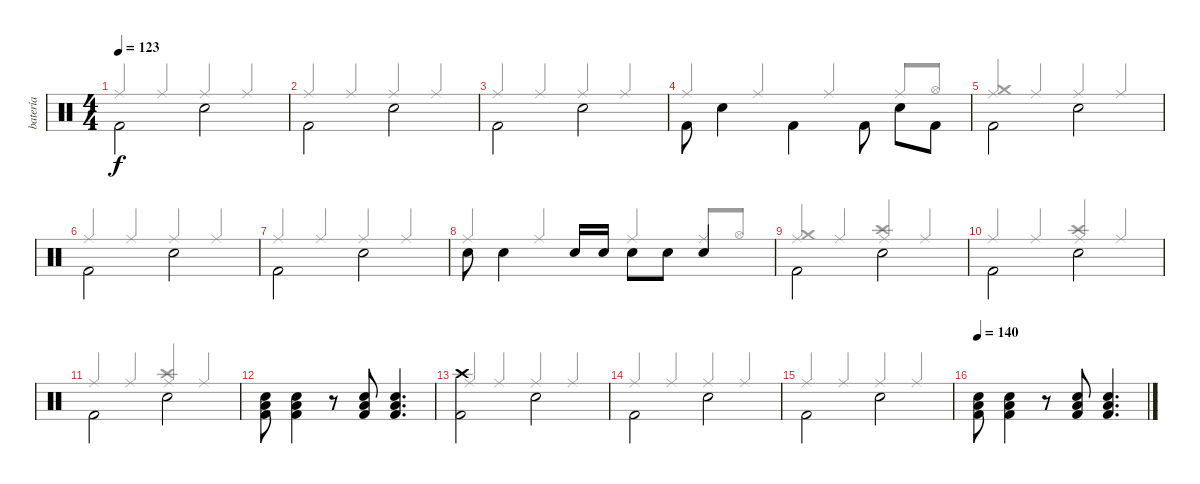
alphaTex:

\track ("batería" "batería") {instrument percussion}
\staff {score}
\articulation defaults
\voice
\ts (4 4)
\tempo 123
\clef neutral
\ks c "Kick (hit) 2".2{dy f beam Down} "Snare (hit) 2".2{beam Down}
|
"Kick (hit) 2".2{beam Down} "Snare (hit) 2".2{beam Down} |
"Kick (hit) 2".2{beam Down} "Snare (hit) 2".2{beam Down} |
"Kick (hit) 2".8{beam Down} "Snare (hit) 2".4{beam Down} "Kick (hit) 2".4{beam Down} "Kick (hit) 2".8{beam Down} "Snare (hit) 2".8{beam Down} "Kick (hit) 2".8{beam Down} |
"Kick (hit) 2".2{beam Down} "Snare (hit) 2".2{beam Down} |
"Kick (hit) 2".2{beam Down} "Snare (hit) 2".2{beam Down} |
"Kick (hit) 2".2{beam Down} "Snare (hit) 2".2{beam Down} |
"Snare (hit) 2".8{beam Down} "Snare (hit) 2".4{beam Down} "Snare (hit) 2".16 "Snare (hit) 2".16 "Snare (hit) 2".8{beam Down} "Snare (hit) 2".8{beam Down} "Snare (hit) 2".4 |
"Kick (hit) 2".2{beam Down} "Snare (hit) 2".2{beam Down} |
"Kick (hit) 2".2{beam Down} "Snare (hit) 2".2{beam Down} |
"Kick (hit) 2".2{beam Down} "Snare (hit) 2".2{beam Down} |
("Low Tom (hit)" "Snare (hit) 2" "Kick (hit) 2").8{beam Down} ("Low Tom (hit)" "Snare (hit) 2" "Kick (hit) 2").4{beam Down} r.8 ("Low Tom (hit)" "Snare (hit) 2" "Kick (hit) 2").8 ("Low Tom (hit)" "Snare (hit) 2" "Kick (hit) 2").4{d} |
("Crash high (hit)" "Kick (hit) 2").2{beam Down} "Snare (hit) 2".2{beam Down} |
"Kick (hit) 2".2{beam Down} "Snare (hit) 2".2{beam Down} |
"Kick (hit) 2".2{beam Down} "Snare (hit) 2".2{beam Down} |
\tempo 140
("Low Tom (hit)" "Snare (hit) 2" "Kick (hit) 2").8{beam Down} ("Low Tom (hit)" "Snare (hit) 2" "Kick (hit) 2").4{beam Down} r.8 ("Low Tom (hit)" "Snare (hit) 2" "Kick (hit) 2").8 ("Low Tom (hit)" "Snare (hit) 2" "Kick (hit) 2").4{d}
\voice
\clef neutral
\ottava regular
\simile none
\ks c "Ride (middle)".4{dy f beam Up} "Ride (middle)".4{beam Up} "Ride (middle)".4{beam Up} "Ride (middle)".4{beam Up}
|
"Ride (middle)".4{beam Up} "Ride (middle)".4{beam Up} "Ride (middle)".4{beam Up} "Ride (middle)".4{beam Up} |
"Ride (middle)".4{beam Up} "Ride (middle)".4{beam Up} "Ride (middle)".4{beam Up} "Ride (middle)".4{beam Up} |
"Ride (middle)".4{beam Up} "Ride (middle)".4{beam Up} "Ride (middle)".4{beam Up} "Ride (middle)".8{beam Up} "Hi-Hat (open)".8{beam Up} |
("Ride (middle)" "Crash medium (hit)").4{beam Up} "Ride (middle)".4{beam Up} "Ride (middle)".4{beam Up} "Ride (middle)".4{beam Up} |
"Ride (middle)".4{beam Up} "Ride (middle)".4{beam Up} "Ride (middle)".4{beam Up} "Ride (middle)".4{beam Up} |
"Ride (middle)".4{beam Up} "Ride (middle)".4{beam Up} "Ride (middle)".4{beam Up} "Ride (middle)".4{beam Up} |
"Ride (middle)".4{beam Up} "Ride (middle)".4{beam Up} "Ride (middle)".4{beam Up} "Ride (middle)".8{beam Up} "Hi-Hat (open)".8{beam Up} |
("Crash medium (hit)" "Ride (middle)").4{beam Up} "Ride (middle)".4{beam Up} ("Crash high (hit)" "Ride (middle)").4{beam Up} "Ride (middle)".4{beam Up} |
"Ride (middle)".4{beam Up} "Ride (middle)".4{beam Up} ("Ride (middle)" "Crash high (hit)").4{beam Up} "Ride (middle)".4{beam Up} |
"Ride (middle)".4{beam Up} "Ride (middle)".4{beam Up} ("Crash high (hit)" "Ride (middle)").4{beam Up} "Ride (middle)".4{beam Up} |
|
"Ride (middle)".4{beam Up} "Ride (middle)".4{beam Up} "Ride (middle)".4{beam Up} "Ride (middle)".4{beam Up} |
"Ride (middle)".4{beam Up} "Ride (middle)".4{beam Up} "Ride (middle)".4{beam Up} "Ride (middle)".4{beam Up} |
"Ride (middle)".4{beam Up} "Ride (middle)".4{beam Up} "Ride (middle)".4{beam Up} "Ride (middle)".4{beam Up} |
